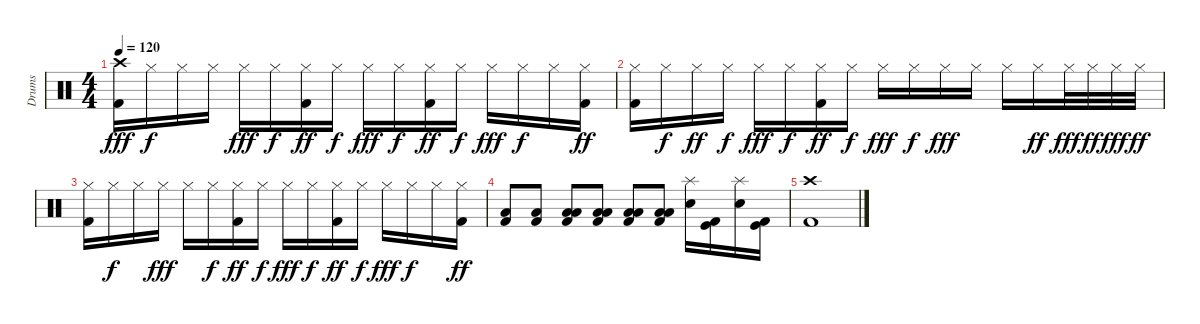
\track ("Drums" "Drums") {instrument percussion}
\staff {score}
\articulation defaults
\ts (4 4)
\tempo 120
\clef neutral
\ks c
("Crash high (hit)" "Kick (hit) 2").16{dy fff} "Hi-Hat (closed)".16{dy f} "Hi-Hat (closed)".16 "Hi-Hat (closed)".16 "Hi-Hat (closed)".16{dy fff} "Hi-Hat (closed)".16{dy f} ("Hi-Hat (closed)" "Kick (hit) 2").16{dy ff} "Hi-Hat (closed)".16{dy f} "Hi-Hat (closed)".16{dy fff} "Hi-Hat (closed)".16{dy f} ("Hi-Hat (closed)" "Kick (hit) 2").16{dy ff} "Hi-Hat (closed)".16{dy f} "Hi-Hat (closed)".16{dy fff} "Hi-Hat (closed)".16{dy f} "Hi-Hat (closed)".16 ("Hi-Hat (closed)" "Kick (hit) 2").16{dy ff} |
("Hi-Hat (closed)" "Kick (hit) 2").16 "Hi-Hat (closed)".16{dy f} "Hi-Hat (closed)".16{dy ff} "Hi-Hat (closed)".16{dy f} "Hi-Hat (closed)".16{dy fff} "Hi-Hat (closed)".16{dy f} ("Hi-Hat (closed)" "Kick (hit) 2").16{dy ff} "Hi-Hat (closed)".16{dy f} "Hi-Hat (closed)".16{dy fff} "Hi-Hat (closed)".16{dy f} "Hi-Hat (closed)".16{dy fff} "Hi-Hat (closed)".16 "Hi-Hat (closed)".16 "Hi-Hat (closed)".16{dy ff} "Hi-Hat (closed)".32{dy fff} "Hi-Hat (closed)".32{dy ff} "Hi-Hat (closed)".32{dy fff} "Hi-Hat (closed)".32{dy ff} |
("Hi-Hat (closed)" "Kick (hit) 2").16 "Hi-Hat (closed)".16{dy f} "Hi-Hat (closed)".16 "Hi-Hat (closed)".16{dy fff} "Hi-Hat (closed)".16 "Hi-Hat (closed)".16{dy f} ("Hi-Hat (closed)" "Kick (hit) 2").16{dy ff} "Hi-Hat (closed)".16{dy f} "Hi-Hat (closed)".16{dy fff} "Hi-Hat (closed)".16{dy f} ("Hi-Hat (closed)" "Kick (hit) 2").16{dy ff} "Hi-Hat (closed)".16{dy f} "Hi-Hat (closed)".16{dy fff} "Hi-Hat (closed)".16{dy f} "Hi-Hat (closed)".16 ("Hi-Hat (closed)" "Kick (hit) 2").16{dy ff} |
("Low Tom (hit)" "Kick (hit) 2").8 ("Low Tom (hit)" "Kick (hit) 2").8 ("Low Tom (hit)" "Low Floor Tom (hit)" "Kick (hit) 2").8 ("Low Tom (hit)" "Low Floor Tom (hit)" "Kick (hit) 2").8 ("Low Tom (hit)" "Low Floor Tom (hit)" "Kick (hit) 2").8 ("Low Tom (hit)" "Low Floor Tom (hit)" "Kick (hit) 2").8 ("Splash (hit)" "Electric Snare (hit)").16 ("Kick (hit) 2" "Kick (hit)").16 ("Splash (hit)" "Electric Snare (hit)").16 ("Kick (hit) 2" "Kick (hit)").16 |
("Crash high (hit)" "Kick (hit) 2").1
